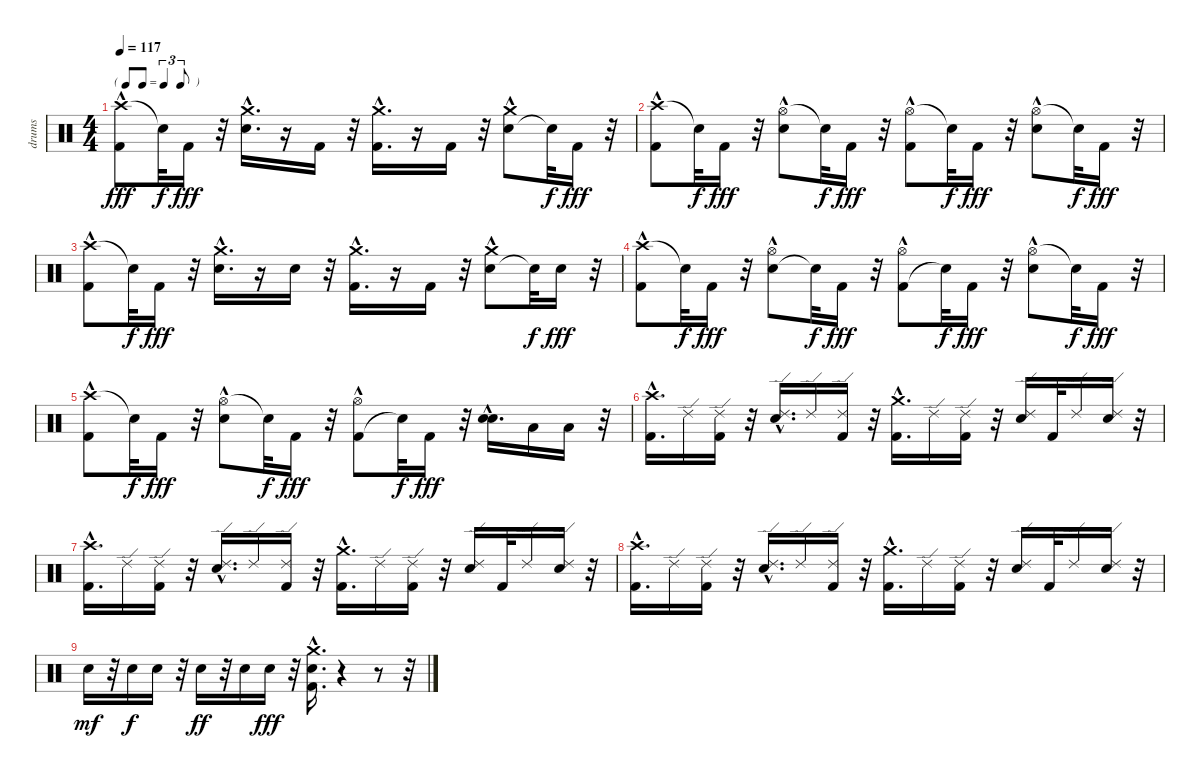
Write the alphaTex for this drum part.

\track ("drums" "drums") {instrument percussion}
\staff {score}
\articulation defaults
\ts (4 4)
\tf triplet8th
\tempo 117
\clef neutral
\ks c
("Crash high (hit)" "Kick (hit) 2"{hac}).8{dy fff} "Snare (hit)"{t}.32{dy f} "Kick (hit) 2".16{dy fff} r.32 ("Electric Snare (hit)"{hac} "Crash medium (hit)"{hac}).16{d} r.16 "Kick (hit) 2".16 r.32 ("Kick (hit) 2"{hac} "Crash medium (hit)"{hac}).16{d} r.16 "Kick (hit) 2".16 r.32 ("Electric Snare (hit)"{hac} "Crash medium (hit)").8 "Snare (hit)"{t}.32{dy f} "Kick (hit) 2".16{dy fff} r.32 |
("Crash high (hit)" "Kick (hit) 2"{hac}).8 "Snare (hit)"{t}.32{dy f} "Kick (hit) 2".16{dy fff} r.32 ("Hi-Hat (open)" "Electric Snare (hit)"{hac}).8 "Snare (hit)"{t}.32{dy f} "Kick (hit) 2".16{dy fff} r.32 ("Hi-Hat (open)" "Kick (hit) 2"{hac}).8 "Snare (hit)"{t}.32{dy f} "Kick (hit) 2".16{dy fff} r.32 ("Hi-Hat (open)" "Electric Snare (hit)"{hac}).8 "Snare (hit)"{t}.32{dy f} "Kick (hit) 2".16{dy fff} r.32 |
("Crash high (hit)" "Kick (hit) 2"{hac}).8 "Snare (hit)"{t}.32{dy f} "Kick (hit) 2".16{dy fff} r.32 ("Electric Snare (hit)"{hac} "Crash medium (hit)"{hac}).16{d} r.16 "Electric Snare (hit)".16 r.32 ("Kick (hit) 2"{hac} "Crash medium (hit)"{hac}).16{d} r.16 "Kick (hit) 2".16 r.32 ("Electric Snare (hit)"{hac} "Crash medium (hit)").8 "Snare (hit)"{t}.32{dy f} "Electric Snare (hit)".16{dy fff} r.32 |
("Crash high (hit)" "Kick (hit) 2"{hac}).8 "Snare (hit)"{t}.32{dy f} "Kick (hit) 2".16{dy fff} r.32 ("Electric Snare (hit)"{hac} "Hi-Hat (open)").8 "Snare (hit)"{t}.32{dy f} "Kick (hit) 2".16{dy fff} r.32 ("Kick (hit) 2"{hac} "Hi-Hat (open)").8 "Snare (hit)"{t}.32{dy f} "Kick (hit) 2".16{dy fff} r.32 ("Hi-Hat (open)" "Electric Snare (hit)"{hac}).8 "Snare (hit)"{t}.32{dy f} "Kick (hit) 2".16{dy fff} r.32 |
("Crash high (hit)" "Kick (hit) 2"{hac}).8 "Snare (hit)"{t}.32{dy f} "Kick (hit) 2".16{dy fff} r.32 ("Hi-Hat (open)" "Electric Snare (hit)"{hac}).8 "Snare (hit)"{t}.32{dy f} "Kick (hit) 2".16{dy fff} r.32 ("Kick (hit) 2"{hac} "Hi-Hat (open)").8 "Snare (hit)"{t}.32{dy f} "Kick (hit) 2".16{dy fff} r.32 ("Electric Snare (hit)"{hac} "Electric Snare (hit)"{hac}).16{d} "Low Floor Tom (hit)".16 "Low Floor Tom (hit)".16 r.32 |
("Crash high (hit)"{hac} "Kick (hit) 2"{hac}).16{d} "Ride (edge) 2".16 ("Ride (edge) 2" "Kick (hit) 2").16 r.32 ("Ride (edge) 2" "Electric Snare (hit)"{hac}).16{d} "Ride (edge) 2".16 ("Ride (edge) 2" "Kick (hit) 2").16 r.32 ("Crash medium (hit)"{hac} "Kick (hit) 2"{hac}).16{d} "Ride (edge) 2".16 ("Ride (edge) 2" "Kick (hit) 2").16 r.32 ("Ride (edge) 2" "Electric Snare (hit)").16 "Kick (hit) 2".32 "Ride (edge) 2".16 ("Ride (edge) 2" "Electric Snare (hit)").16 r.32 |
("Crash high (hit)"{hac} "Kick (hit) 2"{hac}).16{d} "Ride (edge) 2".16 ("Ride (edge) 2" "Kick (hit) 2").16 r.32 ("Ride (edge) 2" "Electric Snare (hit)"{hac}).16{d} "Ride (edge) 2".16 ("Ride (edge) 2" "Kick (hit) 2").16 r.32 ("Crash medium (hit)"{hac} "Kick (hit) 2"{hac}).16{d} "Ride (edge) 2".16 ("Ride (edge) 2" "Kick (hit) 2").16 r.32 ("Ride (edge) 2" "Electric Snare (hit)").16 "Kick (hit) 2".32 "Ride (edge) 2".16 ("Ride (edge) 2" "Electric Snare (hit)").16 r.32 |
("Crash high (hit)"{hac} "Kick (hit) 2"{hac}).16{d} "Ride (edge) 2".16 ("Ride (edge) 2" "Kick (hit) 2").16 r.32 ("Ride (edge) 2" "Electric Snare (hit)"{hac}).16{d} "Ride (edge) 2".16 ("Ride (edge) 2" "Kick (hit) 2").16 r.32 ("Crash medium (hit)"{hac} "Kick (hit) 2"{hac}).16{d} "Ride (edge) 2".16 ("Ride (edge) 2" "Kick (hit) 2").16 r.32 ("Ride (edge) 2" "Electric Snare (hit)").16 "Kick (hit) 2".32 "Ride (edge) 2".16 ("Ride (edge) 2" "Electric Snare (hit)").16 r.32 |
"Electric Snare (hit)".16{dy mf} r.32 "Electric Snare (hit)".16{dy f} "Electric Snare (hit)".16 r.32 "Electric Snare (hit)".16{dy ff} r.32 "Electric Snare (hit)".16 "Electric Snare (hit)".16{dy fff} r.32 ("Electric Snare (hit)" "Crash medium (hit)"{hac} "Kick (hit) 2"{hac}).16{d} r.4 r.8 r.32
